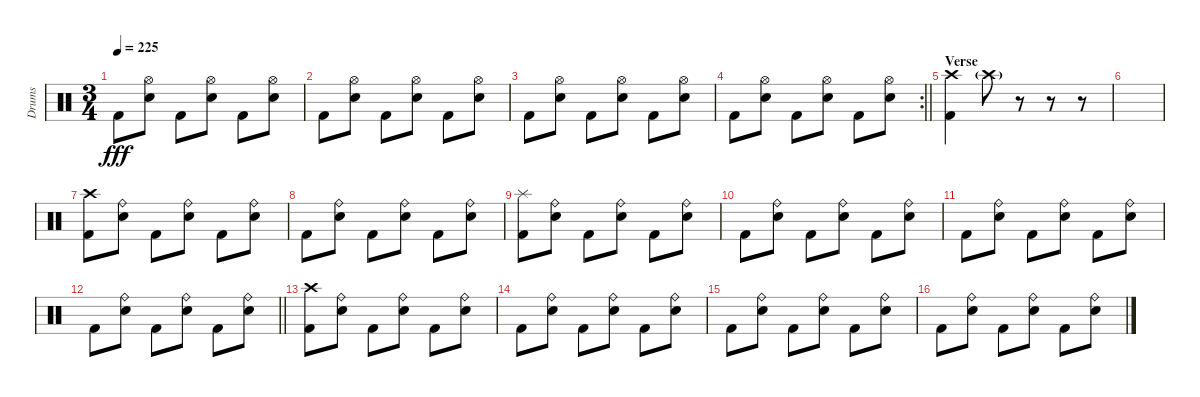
\track ("Drums" "Drums") {instrument percussion}
\staff {score}
\articulation defaults
\ts (3 4)
\tempo 225
\clef neutral
\ks c "Kick (hit) 2".8{dy fff}
("Hi-Hat (open)" "Electric Snare (hit)").8 "Kick (hit) 2".8 ("Hi-Hat (open)" "Electric Snare (hit)").8 "Kick (hit) 2".8 ("Hi-Hat (open)" "Electric Snare (hit)").8 |
"Kick (hit) 2".8 ("Hi-Hat (open)" "Electric Snare (hit)").8 "Kick (hit) 2".8 ("Hi-Hat (open)" "Electric Snare (hit)").8 "Kick (hit) 2".8 ("Hi-Hat (open)" "Electric Snare (hit)").8 |
"Kick (hit) 2".8 ("Hi-Hat (open)" "Electric Snare (hit)").8 "Kick (hit) 2".8 ("Hi-Hat (open)" "Electric Snare (hit)").8 "Kick (hit) 2".8 ("Hi-Hat (open)" "Electric Snare (hit)").8 |
\rc 2
\barLineRight lightlight "Kick (hit) 2".8
("Hi-Hat (open)" "Electric Snare (hit)").8 "Kick (hit) 2".8 ("Hi-Hat (open)" "Electric Snare (hit)").8 "Kick (hit) 2".8 ("Hi-Hat (open)" "Electric Snare (hit)").8 |
\section ("" "Verse")
("Crash high (hit)" "Kick (hit) 2").4 "Crash high (hit)"{g}.8 r.8 r.8 r.8 |
|
("Crash high (hit)" "Kick (hit) 2").8 ("Ride (bell)" "Electric Snare (hit)").8 "Kick (hit) 2".8 ("Ride (bell)" "Electric Snare (hit)").8 "Kick (hit) 2".8 ("Ride (bell)" "Electric Snare (hit)").8 |
"Kick (hit) 2".8 ("Ride (bell)" "Electric Snare (hit)").8 "Kick (hit) 2".8 ("Ride (bell)" "Electric Snare (hit)").8 "Kick (hit) 2".8 ("Ride (bell)" "Electric Snare (hit)").8 |
("Splash (hit)" "Kick (hit) 2").8 ("Ride (bell)" "Electric Snare (hit)").8 "Kick (hit) 2".8 ("Ride (bell)" "Electric Snare (hit)").8 "Kick (hit) 2".8 ("Ride (bell)" "Electric Snare (hit)").8 |
"Kick (hit) 2".8 ("Ride (bell)" "Electric Snare (hit)").8 "Kick (hit) 2".8 ("Ride (bell)" "Electric Snare (hit)").8 "Kick (hit) 2".8 ("Ride (bell)" "Electric Snare (hit)").8 |
"Kick (hit) 2".8 ("Ride (bell)" "Electric Snare (hit)").8 "Kick (hit) 2".8 ("Ride (bell)" "Electric Snare (hit)").8 "Kick (hit) 2".8 ("Ride (bell)" "Electric Snare (hit)").8 |
\barLineRight lightlight "Kick (hit) 2".8
("Ride (bell)" "Electric Snare (hit)").8 "Kick (hit) 2".8 ("Ride (bell)" "Electric Snare (hit)").8 "Kick (hit) 2".8 ("Ride (bell)" "Electric Snare (hit)").8 |
("Crash high (hit)" "Kick (hit) 2").8 ("Ride (bell)" "Electric Snare (hit)").8 "Kick (hit) 2".8 ("Ride (bell)" "Electric Snare (hit)").8 "Kick (hit) 2".8 ("Ride (bell)" "Electric Snare (hit)").8 |
"Kick (hit) 2".8 ("Ride (bell)" "Electric Snare (hit)").8 "Kick (hit) 2".8 ("Ride (bell)" "Electric Snare (hit)").8 "Kick (hit) 2".8 ("Ride (bell)" "Electric Snare (hit)").8 |
"Kick (hit) 2".8 ("Ride (bell)" "Electric Snare (hit)").8 "Kick (hit) 2".8 ("Ride (bell)" "Electric Snare (hit)").8 "Kick (hit) 2".8 ("Ride (bell)" "Electric Snare (hit)").8 |
"Kick (hit) 2".8 ("Ride (bell)" "Electric Snare (hit)").8 "Kick (hit) 2".8 ("Ride (bell)" "Electric Snare (hit)").8 "Kick (hit) 2".8 ("Ride (bell)" "Electric Snare (hit)").8
